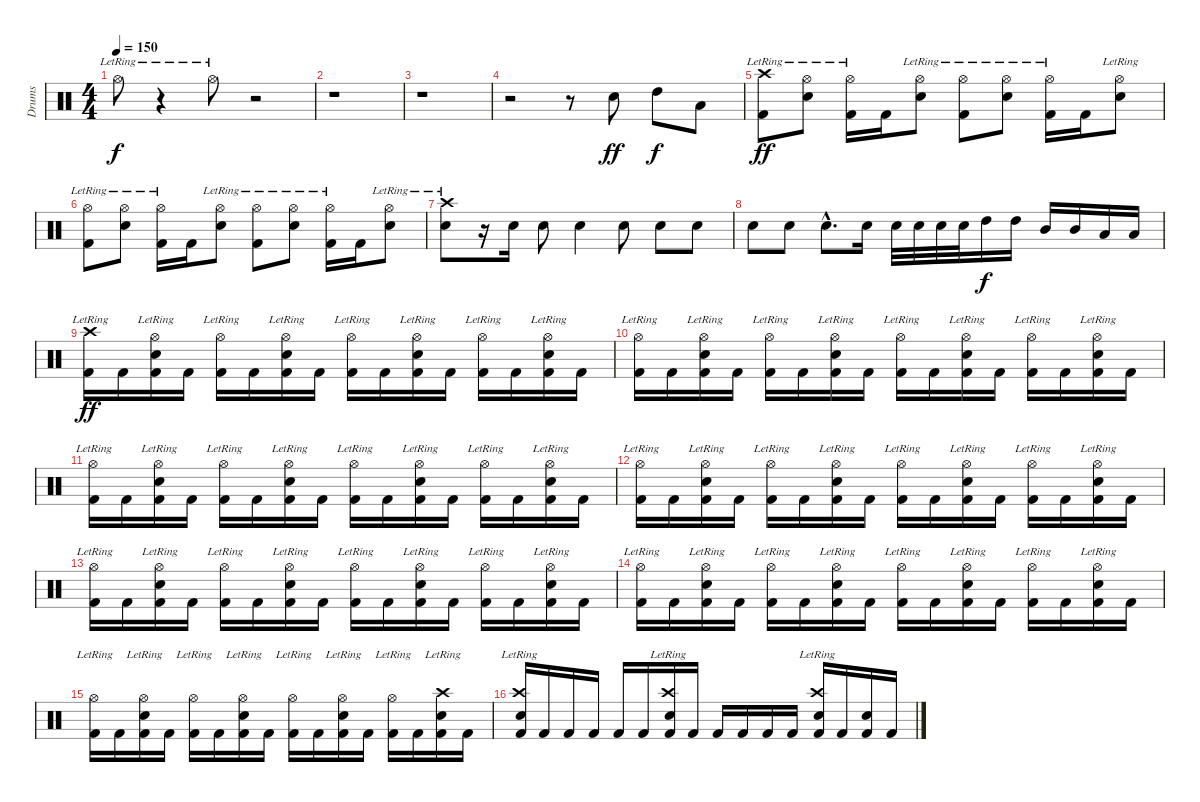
\track ("Drums" "Drums") {instrument percussion}
\staff {score}
\articulation defaults
\ts (4 4)
\tempo 150
\clef neutral
\ks c "Hi-Hat (open)"{lr}.8{dy f}
r.4 "Hi-Hat (open)"{lr}.8 r.2 |
r.1 |
r.1 |
r.2 r.8 "Snare (hit) 2".8{dy ff} "High Tom (hit)".8{dy f} "Low Tom (hit)".8 |
("Crash high (hit)"{lr} "Kick (hit) 2").8{dy ff} ("Hi-Hat (open)"{lr} "Snare (hit) 2").8 ("Hi-Hat (open)"{lr} "Kick (hit) 2").16 "Kick (hit) 2".16 ("Hi-Hat (open)"{lr} "Snare (hit) 2").8 ("Hi-Hat (open)"{lr} "Kick (hit) 2").8 ("Hi-Hat (open)"{lr} "Snare (hit) 2").8 ("Hi-Hat (open)"{lr} "Kick (hit) 2").16 "Kick (hit) 2".16 ("Hi-Hat (open)"{lr} "Snare (hit) 2").8 |
("Hi-Hat (open)"{lr} "Kick (hit) 2").8 ("Hi-Hat (open)"{lr} "Snare (hit) 2").8 ("Hi-Hat (open)"{lr} "Kick (hit) 2").16 "Kick (hit) 2".16 ("Hi-Hat (open)"{lr} "Snare (hit) 2").8 ("Hi-Hat (open)"{lr} "Kick (hit) 2").8 ("Hi-Hat (open)"{lr} "Snare (hit) 2").8 ("Hi-Hat (open)"{lr} "Kick (hit) 2").16 "Kick (hit) 2".16 ("Hi-Hat (open)"{lr} "Snare (hit) 2").8 |
("Crash high (hit)"{lr} "Snare (hit) 2").8 r.16 "Snare (hit) 2".16 "Snare (hit) 2".8 "Snare (hit) 2".4 "Snare (hit) 2".8 "Snare (hit) 2".8 "Snare (hit) 2".8 |
"Snare (hit) 2".8 "Snare (hit) 2".8 "Snare (hit) 2"{hac}.8{d} "Snare (hit) 2".16 "Snare (hit) 2".32 "Snare (hit) 2".32 "Snare (hit) 2".32 "Snare (hit) 2".32 "High Tom (hit)".16{dy f} "High Tom (hit)".16 "Mid Tom (hit)".16 "Mid Tom (hit)".16 "Low Tom (hit)".16 "Low Tom (hit)".16 |
("Crash high (hit)"{lr} "Kick (hit) 2").16{dy ff} "Kick (hit) 2".16 ("Hi-Hat (open)"{lr} "Snare (hit) 2" "Kick (hit) 2").16 "Kick (hit) 2".16 ("Hi-Hat (open)"{lr} "Kick (hit) 2").16 "Kick (hit) 2".16 ("Hi-Hat (open)"{lr} "Snare (hit) 2" "Kick (hit) 2").16 "Kick (hit) 2".16 ("Hi-Hat (open)"{lr} "Kick (hit) 2").16 "Kick (hit) 2".16 ("Hi-Hat (open)"{lr} "Snare (hit) 2" "Kick (hit) 2").16 "Kick (hit) 2".16 ("Hi-Hat (open)"{lr} "Kick (hit) 2").16 "Kick (hit) 2".16 ("Hi-Hat (open)"{lr} "Snare (hit) 2" "Kick (hit) 2").16 "Kick (hit) 2".16 |
("Hi-Hat (open)"{lr} "Kick (hit) 2").16 "Kick (hit) 2".16 ("Hi-Hat (open)"{lr} "Snare (hit) 2" "Kick (hit) 2").16 "Kick (hit) 2".16 ("Hi-Hat (open)"{lr} "Kick (hit) 2").16 "Kick (hit) 2".16 ("Hi-Hat (open)"{lr} "Snare (hit) 2" "Kick (hit) 2").16 "Kick (hit) 2".16 ("Hi-Hat (open)"{lr} "Kick (hit) 2").16 "Kick (hit) 2".16 ("Hi-Hat (open)"{lr} "Snare (hit) 2" "Kick (hit) 2").16 "Kick (hit) 2".16 ("Hi-Hat (open)"{lr} "Kick (hit) 2").16 "Kick (hit) 2".16 ("Hi-Hat (open)"{lr} "Snare (hit) 2" "Kick (hit) 2").16 "Kick (hit) 2".16 |
("Hi-Hat (open)"{lr} "Kick (hit) 2").16 "Kick (hit) 2".16 ("Hi-Hat (open)"{lr} "Snare (hit) 2" "Kick (hit) 2").16 "Kick (hit) 2".16 ("Hi-Hat (open)"{lr} "Kick (hit) 2").16 "Kick (hit) 2".16 ("Hi-Hat (open)"{lr} "Snare (hit) 2" "Kick (hit) 2").16 "Kick (hit) 2".16 ("Hi-Hat (open)"{lr} "Kick (hit) 2").16 "Kick (hit) 2".16 ("Hi-Hat (open)"{lr} "Snare (hit) 2" "Kick (hit) 2").16 "Kick (hit) 2".16 ("Hi-Hat (open)"{lr} "Kick (hit) 2").16 "Kick (hit) 2".16 ("Hi-Hat (open)"{lr} "Snare (hit) 2" "Kick (hit) 2").16 "Kick (hit) 2".16 |
("Hi-Hat (open)"{lr} "Kick (hit) 2").16 "Kick (hit) 2".16 ("Hi-Hat (open)"{lr} "Snare (hit) 2" "Kick (hit) 2").16 "Kick (hit) 2".16 ("Hi-Hat (open)"{lr} "Kick (hit) 2").16 "Kick (hit) 2".16 ("Hi-Hat (open)"{lr} "Snare (hit) 2" "Kick (hit) 2").16 "Kick (hit) 2".16 ("Hi-Hat (open)"{lr} "Kick (hit) 2").16 "Kick (hit) 2".16 ("Hi-Hat (open)"{lr} "Snare (hit) 2" "Kick (hit) 2").16 "Kick (hit) 2".16 ("Hi-Hat (open)"{lr} "Kick (hit) 2").16 "Kick (hit) 2".16 ("Hi-Hat (open)"{lr} "Snare (hit) 2" "Kick (hit) 2").16 "Kick (hit) 2".16 |
("Hi-Hat (open)"{lr} "Kick (hit) 2").16 "Kick (hit) 2".16 ("Hi-Hat (open)"{lr} "Snare (hit) 2" "Kick (hit) 2").16 "Kick (hit) 2".16 ("Hi-Hat (open)"{lr} "Kick (hit) 2").16 "Kick (hit) 2".16 ("Hi-Hat (open)"{lr} "Snare (hit) 2" "Kick (hit) 2").16 "Kick (hit) 2".16 ("Hi-Hat (open)"{lr} "Kick (hit) 2").16 "Kick (hit) 2".16 ("Hi-Hat (open)"{lr} "Snare (hit) 2" "Kick (hit) 2").16 "Kick (hit) 2".16 ("Hi-Hat (open)"{lr} "Kick (hit) 2").16 "Kick (hit) 2".16 ("Hi-Hat (open)"{lr} "Snare (hit) 2" "Kick (hit) 2").16 "Kick (hit) 2".16 |
("Hi-Hat (open)"{lr} "Kick (hit) 2").16 "Kick (hit) 2".16 ("Hi-Hat (open)"{lr} "Snare (hit) 2" "Kick (hit) 2").16 "Kick (hit) 2".16 ("Hi-Hat (open)"{lr} "Kick (hit) 2").16 "Kick (hit) 2".16 ("Hi-Hat (open)"{lr} "Snare (hit) 2" "Kick (hit) 2").16 "Kick (hit) 2".16 ("Hi-Hat (open)"{lr} "Kick (hit) 2").16 "Kick (hit) 2".16 ("Hi-Hat (open)"{lr} "Snare (hit) 2" "Kick (hit) 2").16 "Kick (hit) 2".16 ("Hi-Hat (open)"{lr} "Kick (hit) 2").16 "Kick (hit) 2".16 ("Hi-Hat (open)"{lr} "Snare (hit) 2" "Kick (hit) 2").16 "Kick (hit) 2".16 |
("Hi-Hat (open)"{lr} "Kick (hit) 2").16 "Kick (hit) 2".16 ("Hi-Hat (open)"{lr} "Snare (hit) 2" "Kick (hit) 2").16 "Kick (hit) 2".16 ("Hi-Hat (open)"{lr} "Kick (hit) 2").16 "Kick (hit) 2".16 ("Hi-Hat (open)"{lr} "Snare (hit) 2" "Kick (hit) 2").16 "Kick (hit) 2".16 ("Hi-Hat (open)"{lr} "Kick (hit) 2").16 "Kick (hit) 2".16 ("Hi-Hat (open)"{lr} "Snare (hit) 2" "Kick (hit) 2").16 "Kick (hit) 2".16 ("Hi-Hat (open)"{lr} "Kick (hit) 2").16 "Kick (hit) 2".16 ("Crash high (hit)"{lr} "Snare (hit) 2" "Kick (hit) 2").16 "Kick (hit) 2".16 |
("Crash high (hit)"{lr} "Snare (hit) 2" "Kick (hit) 2").16 "Kick (hit) 2".16 "Kick (hit) 2".16 "Kick (hit) 2".16 "Kick (hit) 2".16 "Kick (hit) 2".16 ("Crash high (hit)"{lr} "Snare (hit) 2" "Kick (hit) 2").16 "Kick (hit) 2".16 "Kick (hit) 2".16 "Kick (hit) 2".16 "Kick (hit) 2".16 "Kick (hit) 2".16 ("Crash high (hit)"{lr} "Snare (hit) 2" "Kick (hit) 2").16 "Kick (hit) 2".16 ("Snare (hit) 2" "Kick (hit) 2").16 "Kick (hit) 2".16
